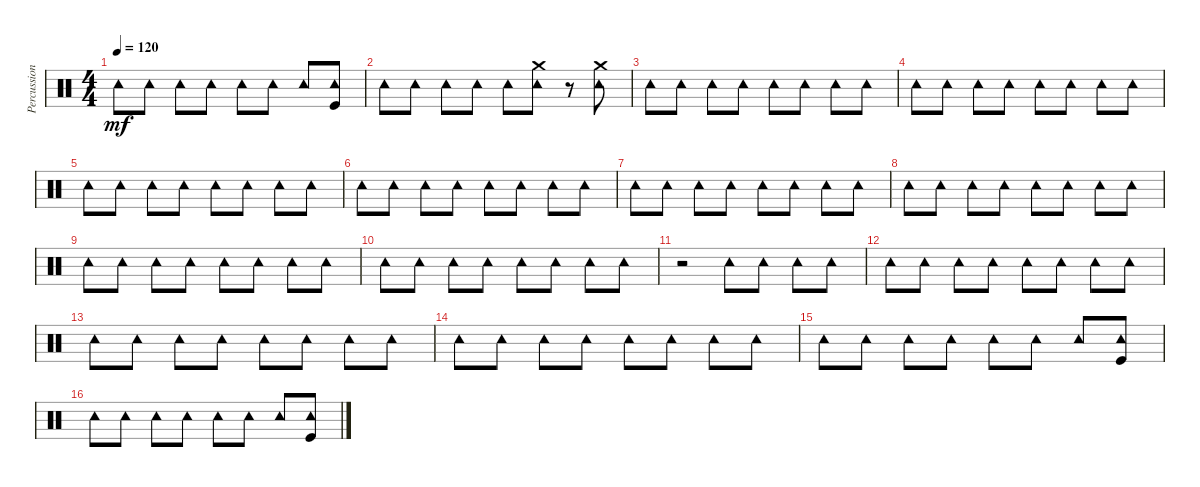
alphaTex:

\track ("Percussions" "Percussion") {instrument percussion}
\staff {score}
\articulation defaults
\ts (4 4)
\tempo 120
\clef neutral
\ks c "Tambourine (hit)".8{dy mf} "Tambourine (hit)".8 "Tambourine (hit)".8 "Tambourine (hit)".8 "Tambourine (hit)".8 "Tambourine (hit)".8 "Tambourine (hit)".8
("Tambourine (hit)" "Kick (hit)").8 |
"Tambourine (hit)".8 "Tambourine (hit)".8 "Tambourine (hit)".8 "Tambourine (hit)".8 "Tambourine (hit)".8 ("Crash medium (hit)" "Tambourine (hit)").8 r.8 ("Tambourine (hit)" "Crash medium (hit)").8 |
"Tambourine (hit)".8 "Tambourine (hit)".8 "Tambourine (hit)".8 "Tambourine (hit)".8 "Tambourine (hit)".8 "Tambourine (hit)".8 "Tambourine (hit)".8 "Tambourine (hit)".8 |
"Tambourine (hit)".8 "Tambourine (hit)".8 "Tambourine (hit)".8 "Tambourine (hit)".8 "Tambourine (hit)".8 "Tambourine (hit)".8 "Tambourine (hit)".8 "Tambourine (hit)".8 |
"Tambourine (hit)".8 "Tambourine (hit)".8 "Tambourine (hit)".8 "Tambourine (hit)".8 "Tambourine (hit)".8 "Tambourine (hit)".8 "Tambourine (hit)".8 "Tambourine (hit)".8 |
"Tambourine (hit)".8 "Tambourine (hit)".8 "Tambourine (hit)".8 "Tambourine (hit)".8 "Tambourine (hit)".8 "Tambourine (hit)".8 "Tambourine (hit)".8 "Tambourine (hit)".8 |
"Tambourine (hit)".8 "Tambourine (hit)".8 "Tambourine (hit)".8 "Tambourine (hit)".8 "Tambourine (hit)".8 "Tambourine (hit)".8 "Tambourine (hit)".8 "Tambourine (hit)".8 |
"Tambourine (hit)".8 "Tambourine (hit)".8 "Tambourine (hit)".8 "Tambourine (hit)".8 "Tambourine (hit)".8 "Tambourine (hit)".8 "Tambourine (hit)".8 "Tambourine (hit)".8 |
"Tambourine (hit)".8 "Tambourine (hit)".8 "Tambourine (hit)".8 "Tambourine (hit)".8 "Tambourine (hit)".8 "Tambourine (hit)".8 "Tambourine (hit)".8 "Tambourine (hit)".8 |
"Tambourine (hit)".8 "Tambourine (hit)".8 "Tambourine (hit)".8 "Tambourine (hit)".8 "Tambourine (hit)".8 "Tambourine (hit)".8 "Tambourine (hit)".8 "Tambourine (hit)".8 |
r.2 "Tambourine (hit)".8 "Tambourine (hit)".8 "Tambourine (hit)".8 "Tambourine (hit)".8 |
"Tambourine (hit)".8 "Tambourine (hit)".8 "Tambourine (hit)".8 "Tambourine (hit)".8 "Tambourine (hit)".8 "Tambourine (hit)".8 "Tambourine (hit)".8 "Tambourine (hit)".8 |
"Tambourine (hit)".8 "Tambourine (hit)".8 "Tambourine (hit)".8 "Tambourine (hit)".8 "Tambourine (hit)".8 "Tambourine (hit)".8 "Tambourine (hit)".8 "Tambourine (hit)".8 |
"Tambourine (hit)".8 "Tambourine (hit)".8 "Tambourine (hit)".8 "Tambourine (hit)".8 "Tambourine (hit)".8 "Tambourine (hit)".8 "Tambourine (hit)".8 "Tambourine (hit)".8 |
"Tambourine (hit)".8 "Tambourine (hit)".8 "Tambourine (hit)".8 "Tambourine (hit)".8 "Tambourine (hit)".8 "Tambourine (hit)".8 "Tambourine (hit)".8 ("Tambourine (hit)" "Kick (hit)").8 |
"Tambourine (hit)".8 "Tambourine (hit)".8 "Tambourine (hit)".8 "Tambourine (hit)".8 "Tambourine (hit)".8 "Tambourine (hit)".8 "Tambourine (hit)".8 ("Tambourine (hit)" "Kick (hit)").8
